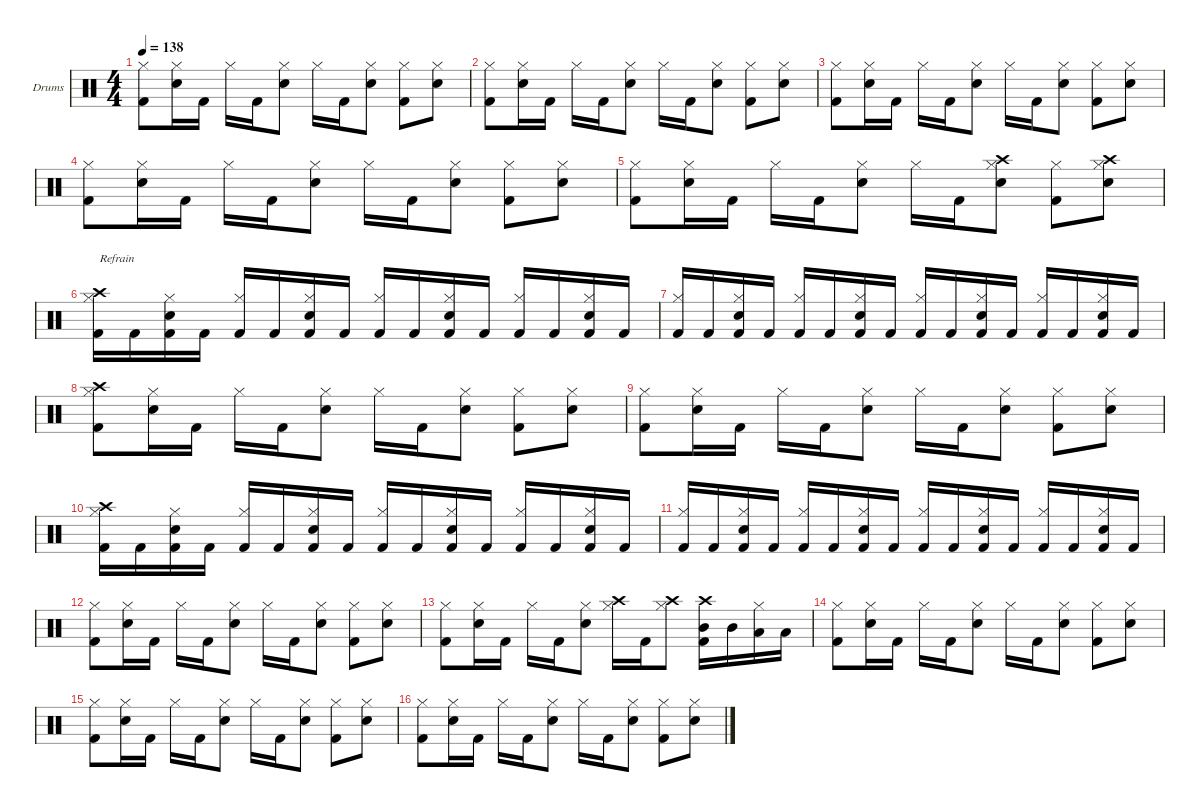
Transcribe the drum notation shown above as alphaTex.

\hideDynamics
\bracketExtendMode nobrackets
\firstSystemTrackNameOrientation horizontal
\otherSystemsTrackNameOrientation horizontal
\track ("Drumkit" "Drums") {instrument percussion}
\staff {score}
\articulation defaults
\ts (4 4)
\tempo 138
\clef neutral
\ks c
("Hi-Hat (closed)" "Kick (hit) 2").8{dy f beam Down} ("Snare (hit) 2" "Hi-Hat (closed)").16{beam Down} "Kick (hit) 2".16{beam Down} "Hi-Hat (closed)".16{beam Down} "Kick (hit) 2".16{beam Down} ("Snare (hit) 2" "Hi-Hat (closed)").8{beam Down} "Hi-Hat (closed)".16{beam Down} "Kick (hit) 2".16{beam Down} ("Snare (hit) 2" "Hi-Hat (closed)").8{beam Down} ("Hi-Hat (closed)" "Kick (hit) 2").8{beam Down} ("Snare (hit) 2" "Hi-Hat (closed)").8{beam Down} |
("Hi-Hat (closed)" "Kick (hit) 2").8{beam Down} ("Snare (hit) 2" "Hi-Hat (closed)").16{beam Down} "Kick (hit) 2".16{beam Down} "Hi-Hat (closed)".16{beam Down} "Kick (hit) 2".16{beam Down} ("Snare (hit) 2" "Hi-Hat (closed)").8{beam Down} "Hi-Hat (closed)".16{beam Down} "Kick (hit) 2".16{beam Down} ("Snare (hit) 2" "Hi-Hat (closed)").8{beam Down} ("Hi-Hat (closed)" "Kick (hit) 2").8{beam Down} ("Snare (hit) 2" "Hi-Hat (closed)").8{beam Down} |
("Hi-Hat (closed)" "Kick (hit) 2").8{beam Down} ("Snare (hit) 2" "Hi-Hat (closed)").16{beam Down} "Kick (hit) 2".16{beam Down} "Hi-Hat (closed)".16{beam Down} "Kick (hit) 2".16{beam Down} ("Snare (hit) 2" "Hi-Hat (closed)").8{beam Down} "Hi-Hat (closed)".16{beam Down} "Kick (hit) 2".16{beam Down} ("Snare (hit) 2" "Hi-Hat (closed)").8{beam Down} ("Hi-Hat (closed)" "Kick (hit) 2").8{beam Down} ("Snare (hit) 2" "Hi-Hat (closed)").8{beam Down} |
("Hi-Hat (closed)" "Kick (hit) 2").8{beam Down} ("Snare (hit) 2" "Hi-Hat (closed)").16{beam Down} "Kick (hit) 2".16{beam Down} "Hi-Hat (closed)".16{beam Down} "Kick (hit) 2".16{beam Down} ("Snare (hit) 2" "Hi-Hat (closed)").8{beam Down} "Hi-Hat (closed)".16{beam Down} "Kick (hit) 2".16{beam Down} ("Snare (hit) 2" "Hi-Hat (closed)").8{beam Down} ("Hi-Hat (closed)" "Kick (hit) 2").8{beam Down} ("Snare (hit) 2" "Hi-Hat (closed)").8{beam Down} |
("Hi-Hat (closed)" "Kick (hit) 2").8{beam Down} ("Snare (hit) 2" "Hi-Hat (closed)").16{beam Down} "Kick (hit) 2".16{beam Down} "Hi-Hat (closed)".16{beam Down} "Kick (hit) 2".16{beam Down} ("Snare (hit) 2" "Hi-Hat (closed)").8{beam Down} "Hi-Hat (closed)".16{beam Down} "Kick (hit) 2".16{beam Down} ("Crash high (hit)" "Snare (hit) 2" "Hi-Hat (closed)").8{beam Down} ("Hi-Hat (closed)" "Kick (hit) 2").8{beam Down} ("Crash high (hit)" "Snare (hit) 2" "Hi-Hat (closed)").8{beam Down} |
("Crash high (hit)" "Hi-Hat (closed)" "Kick (hit) 2").16{txt "Refrain" beam Down} "Kick (hit) 2".16{beam Down} ("Snare (hit) 2" "Hi-Hat (closed)" "Kick (hit) 2").16{beam Down} "Kick (hit) 2".16{beam Down} ("Hi-Hat (closed)" "Kick (hit) 2").16{beam Up} "Kick (hit) 2".16{beam Up} ("Snare (hit) 2" "Hi-Hat (closed)" "Kick (hit) 2").16{beam Up} "Kick (hit) 2".16{beam Up} ("Hi-Hat (closed)" "Kick (hit) 2").16{beam Up} "Kick (hit) 2".16{beam Up} ("Snare (hit) 2" "Hi-Hat (closed)" "Kick (hit) 2").16{beam Up} "Kick (hit) 2".16{beam Up} ("Hi-Hat (closed)" "Kick (hit) 2").16{beam Up} "Kick (hit) 2".16{beam Up} ("Snare (hit) 2" "Hi-Hat (closed)" "Kick (hit) 2").16{beam Up} "Kick (hit) 2".16{beam Up} |
("Hi-Hat (closed)" "Kick (hit) 2").16{beam Up} "Kick (hit) 2".16{beam Up} ("Snare (hit) 2" "Hi-Hat (closed)" "Kick (hit) 2").16{beam Up} "Kick (hit) 2".16{beam Up} ("Hi-Hat (closed)" "Kick (hit) 2").16{beam Up} "Kick (hit) 2".16{beam Up} ("Snare (hit) 2" "Hi-Hat (closed)" "Kick (hit) 2").16{beam Up} "Kick (hit) 2".16{beam Up} ("Hi-Hat (closed)" "Kick (hit) 2").16{beam Up} "Kick (hit) 2".16{beam Up} ("Snare (hit) 2" "Hi-Hat (closed)" "Kick (hit) 2").16{beam Up} "Kick (hit) 2".16{beam Up} ("Hi-Hat (closed)" "Kick (hit) 2").16{beam Up} "Kick (hit) 2".16{beam Up} ("Snare (hit) 2" "Hi-Hat (closed)" "Kick (hit) 2").16{beam Up} "Kick (hit) 2".16{beam Up} |
("Crash high (hit)" "Hi-Hat (closed)" "Kick (hit) 2").8{beam Down} ("Snare (hit) 2" "Hi-Hat (closed)").16{beam Down} "Kick (hit) 2".16{beam Down} "Hi-Hat (closed)".16{beam Down} "Kick (hit) 2".16{beam Down} ("Snare (hit) 2" "Hi-Hat (closed)").8{beam Down} "Hi-Hat (closed)".16{beam Down} "Kick (hit) 2".16{beam Down} ("Snare (hit) 2" "Hi-Hat (closed)").8{beam Down} ("Hi-Hat (closed)" "Kick (hit) 2").8{beam Down} ("Snare (hit) 2" "Hi-Hat (closed)").8{beam Down} |
("Hi-Hat (closed)" "Kick (hit) 2").8{beam Down} ("Snare (hit) 2" "Hi-Hat (closed)").16{beam Down} "Kick (hit) 2".16{beam Down} "Hi-Hat (closed)".16{beam Down} "Kick (hit) 2".16{beam Down} ("Snare (hit) 2" "Hi-Hat (closed)").8{beam Down} "Hi-Hat (closed)".16{beam Down} "Kick (hit) 2".16{beam Down} ("Snare (hit) 2" "Hi-Hat (closed)").8{beam Down} ("Hi-Hat (closed)" "Kick (hit) 2").8{beam Down} ("Snare (hit) 2" "Hi-Hat (closed)").8{beam Down} |
("Crash high (hit)" "Hi-Hat (closed)" "Kick (hit) 2").16{beam Down} "Kick (hit) 2".16{beam Down} ("Snare (hit) 2" "Hi-Hat (closed)" "Kick (hit) 2").16{beam Down} "Kick (hit) 2".16{beam Down} ("Hi-Hat (closed)" "Kick (hit) 2").16{beam Up} "Kick (hit) 2".16{beam Up} ("Snare (hit) 2" "Hi-Hat (closed)" "Kick (hit) 2").16{beam Up} "Kick (hit) 2".16{beam Up} ("Hi-Hat (closed)" "Kick (hit) 2").16{beam Up} "Kick (hit) 2".16{beam Up} ("Snare (hit) 2" "Hi-Hat (closed)" "Kick (hit) 2").16{beam Up} "Kick (hit) 2".16{beam Up} ("Hi-Hat (closed)" "Kick (hit) 2").16{beam Up} "Kick (hit) 2".16{beam Up} ("Snare (hit) 2" "Hi-Hat (closed)" "Kick (hit) 2").16{beam Up} "Kick (hit) 2".16{beam Up} |
("Hi-Hat (closed)" "Kick (hit) 2").16{beam Up} "Kick (hit) 2".16{beam Up} ("Snare (hit) 2" "Hi-Hat (closed)" "Kick (hit) 2").16{beam Up} "Kick (hit) 2".16{beam Up} ("Hi-Hat (closed)" "Kick (hit) 2").16{beam Up} "Kick (hit) 2".16{beam Up} ("Snare (hit) 2" "Hi-Hat (closed)" "Kick (hit) 2").16{beam Up} "Kick (hit) 2".16{beam Up} ("Hi-Hat (closed)" "Kick (hit) 2").16{beam Up} "Kick (hit) 2".16{beam Up} ("Snare (hit) 2" "Hi-Hat (closed)" "Kick (hit) 2").16{beam Up} "Kick (hit) 2".16{beam Up} ("Hi-Hat (closed)" "Kick (hit) 2").16{beam Up} "Kick (hit) 2".16{beam Up} ("Snare (hit) 2" "Hi-Hat (closed)" "Kick (hit) 2").16{beam Up} "Kick (hit) 2".16{beam Up} |
("Hi-Hat (closed)" "Kick (hit) 2").8{beam Down} ("Snare (hit) 2" "Hi-Hat (closed)").16{beam Down} "Kick (hit) 2".16{beam Down} "Hi-Hat (closed)".16{beam Down} "Kick (hit) 2".16{beam Down} ("Snare (hit) 2" "Hi-Hat (closed)").8{beam Down} "Hi-Hat (closed)".16{beam Down} "Kick (hit) 2".16{beam Down} ("Snare (hit) 2" "Hi-Hat (closed)").8{beam Down} ("Hi-Hat (closed)" "Kick (hit) 2").8{beam Down} ("Snare (hit) 2" "Hi-Hat (closed)").8{beam Down} |
("Hi-Hat (closed)" "Kick (hit) 2").8{beam Down} ("Snare (hit) 2" "Hi-Hat (closed)").16{beam Down} "Kick (hit) 2".16{beam Down} "Hi-Hat (closed)".16{beam Down} "Kick (hit) 2".16{beam Down} ("Snare (hit) 2" "Hi-Hat (closed)").8{beam Down} ("Crash high (hit)" "Hi-Hat (closed)").16{beam Down} "Kick (hit) 2".16{beam Down} ("Crash high (hit)" "Hi-Hat (closed)").8{beam Down} ("Crash high (hit)" "Mid Tom (hit)" "Kick (hit) 2").16{beam Down} "Mid Tom (hit)".16{beam Down} ("Low Tom (hit)" "Hi-Hat (closed)").16{beam Down} "Low Tom (hit)".16{beam Down} |
("Hi-Hat (closed)" "Kick (hit) 2").8{beam Down} ("Snare (hit) 2" "Hi-Hat (closed)").16{beam Down} "Kick (hit) 2".16{beam Down} "Hi-Hat (closed)".16{beam Down} "Kick (hit) 2".16{beam Down} ("Snare (hit) 2" "Hi-Hat (closed)").8{beam Down} "Hi-Hat (closed)".16{beam Down} "Kick (hit) 2".16{beam Down} ("Snare (hit) 2" "Hi-Hat (closed)").8{beam Down} ("Hi-Hat (closed)" "Kick (hit) 2").8{beam Down} ("Snare (hit) 2" "Hi-Hat (closed)").8{beam Down} |
("Hi-Hat (closed)" "Kick (hit) 2").8{beam Down} ("Snare (hit) 2" "Hi-Hat (closed)").16{beam Down} "Kick (hit) 2".16{beam Down} "Hi-Hat (closed)".16{beam Down} "Kick (hit) 2".16{beam Down} ("Snare (hit) 2" "Hi-Hat (closed)").8{beam Down} "Hi-Hat (closed)".16{beam Down} "Kick (hit) 2".16{beam Down} ("Snare (hit) 2" "Hi-Hat (closed)").8{beam Down} ("Hi-Hat (closed)" "Kick (hit) 2").8{beam Down} ("Snare (hit) 2" "Hi-Hat (closed)").8{beam Down} |
("Hi-Hat (closed)" "Kick (hit) 2").8{beam Down} ("Snare (hit) 2" "Hi-Hat (closed)").16{beam Down} "Kick (hit) 2".16{beam Down} "Hi-Hat (closed)".16{beam Down} "Kick (hit) 2".16{beam Down} ("Snare (hit) 2" "Hi-Hat (closed)").8{beam Down} "Hi-Hat (closed)".16{beam Down} "Kick (hit) 2".16{beam Down} ("Snare (hit) 2" "Hi-Hat (closed)").8{beam Down} ("Hi-Hat (closed)" "Kick (hit) 2").8{beam Down} ("Snare (hit) 2" "Hi-Hat (closed)").8{beam Down}
